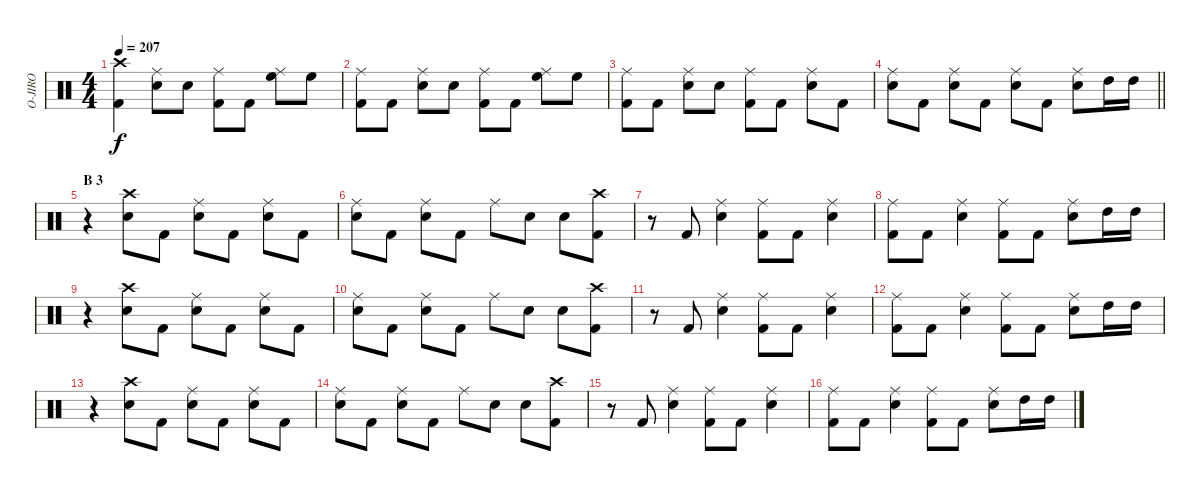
\track ("O-JIRO" "O-JIRO") {instrument percussion}
\staff {score}
\articulation defaults
\ts (4 4)
\tempo 207
\clef neutral
\ks c
("Crash high (hit)" "Kick (hit) 2").4{dy f} ("Ride (middle)" "Snare (hit) 2").8 "Snare (hit) 2".8 ("Ride (middle)" "Kick (hit) 2").8 "Kick (hit) 2".8 ("Ride (middle)" "High Floor Tom (hit)").8 "High Floor Tom (hit)".8 |
("Kick (hit) 2" "Ride (middle)").8 "Kick (hit) 2".8 ("Ride (middle)" "Snare (hit) 2").8 "Snare (hit) 2".8 ("Ride (middle)" "Kick (hit) 2").8 "Kick (hit) 2".8 ("Ride (middle)" "High Floor Tom (hit)").8 "High Floor Tom (hit)".8 |
("Kick (hit) 2" "Ride (middle)").8 "Kick (hit) 2".8 ("Ride (middle)" "Snare (hit) 2").8 "Snare (hit) 2".8 ("Ride (middle)" "Kick (hit) 2").8 "Kick (hit) 2".8 ("Ride (middle)" "Snare (hit) 2").8 "Kick (hit) 2".8 |
\barLineRight lightlight
("Ride (middle)" "Snare (hit) 2").8 "Kick (hit) 2".8 ("Ride (middle)" "Snare (hit) 2").8 "Kick (hit) 2".8 ("Ride (middle)" "Snare (hit) 2").8 "Kick (hit) 2".8 ("Ride (middle)" "Snare (hit) 2").8 "High Tom (hit)".16 "High Tom (hit)".16 |
\section ("" "B 3")
r.4 ("Crash high (hit)" "Snare (hit) 2").8 "Kick (hit) 2".8 ("Ride (middle)" "Snare (hit) 2").8 "Kick (hit) 2".8 ("Ride (middle)" "Snare (hit) 2").8 "Kick (hit) 2".8 |
("Ride (middle)" "Snare (hit) 2").8 "Kick (hit) 2".8 ("Ride (middle)" "Snare (hit) 2").8 "Kick (hit) 2".8 "Ride (middle)".8 "Snare (hit) 2".8 "Snare (hit) 2".8 ("Crash high (hit)" "Kick (hit) 2").8 |
r.8 "Kick (hit) 2".8 ("Ride (middle)" "Snare (hit) 2").4 ("Ride (middle)" "Kick (hit) 2").8 "Kick (hit) 2".8 ("Ride (middle)" "Snare (hit) 2").4 |
("Ride (middle)" "Kick (hit) 2").8 "Kick (hit) 2".8 ("Ride (middle)" "Snare (hit) 2").4 ("Ride (middle)" "Kick (hit) 2").8 "Kick (hit) 2".8 ("Ride (middle)" "Snare (hit) 2").8 "High Tom (hit)".16 "High Tom (hit)".16 |
r.4 ("Crash high (hit)" "Snare (hit) 2").8 "Kick (hit) 2".8 ("Ride (middle)" "Snare (hit) 2").8 "Kick (hit) 2".8 ("Ride (middle)" "Snare (hit) 2").8 "Kick (hit) 2".8 |
("Ride (middle)" "Snare (hit) 2").8 "Kick (hit) 2".8 ("Ride (middle)" "Snare (hit) 2").8 "Kick (hit) 2".8 "Ride (middle)".8 "Snare (hit) 2".8 "Snare (hit) 2".8 ("Crash high (hit)" "Kick (hit) 2").8 |
r.8 "Kick (hit) 2".8 ("Ride (middle)" "Snare (hit) 2").4 ("Ride (middle)" "Kick (hit) 2").8 "Kick (hit) 2".8 ("Ride (middle)" "Snare (hit) 2").4 |
("Ride (middle)" "Kick (hit) 2").8 "Kick (hit) 2".8 ("Ride (middle)" "Snare (hit) 2").4 ("Ride (middle)" "Kick (hit) 2").8 "Kick (hit) 2".8 ("Ride (middle)" "Snare (hit) 2").8 "High Tom (hit)".16 "High Tom (hit)".16 |
r.4 ("Crash high (hit)" "Snare (hit) 2").8 "Kick (hit) 2".8 ("Ride (middle)" "Snare (hit) 2").8 "Kick (hit) 2".8 ("Ride (middle)" "Snare (hit) 2").8 "Kick (hit) 2".8 |
("Ride (middle)" "Snare (hit) 2").8 "Kick (hit) 2".8 ("Ride (middle)" "Snare (hit) 2").8 "Kick (hit) 2".8 "Ride (middle)".8 "Snare (hit) 2".8 "Snare (hit) 2".8 ("Crash high (hit)" "Kick (hit) 2").8 |
r.8 "Kick (hit) 2".8 ("Ride (middle)" "Snare (hit) 2").4 ("Ride (middle)" "Kick (hit) 2").8 "Kick (hit) 2".8 ("Ride (middle)" "Snare (hit) 2").4 |
("Ride (middle)" "Kick (hit) 2").8 "Kick (hit) 2".8 ("Ride (middle)" "Snare (hit) 2").4 ("Ride (middle)" "Kick (hit) 2").8 "Kick (hit) 2".8 ("Ride (middle)" "Snare (hit) 2").8 "High Tom (hit)".16 "High Tom (hit)".16
